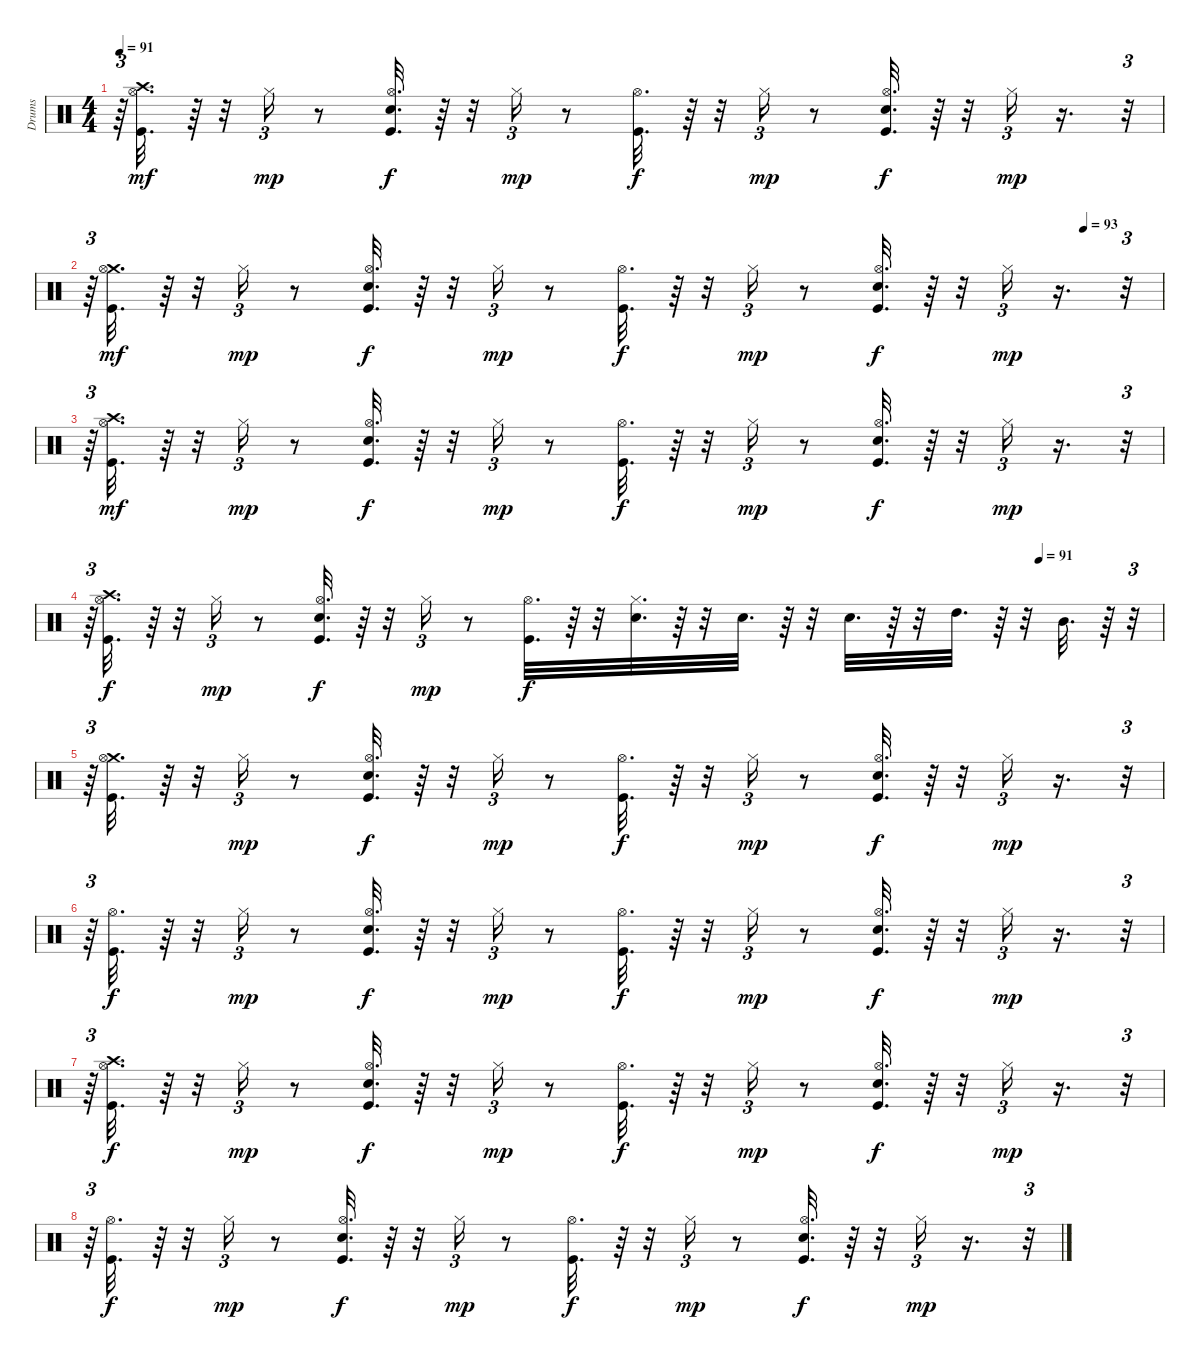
\track ("Drums" "Drums") {instrument percussion}
\staff {score}
\articulation defaults
\ts (4 4)
\tempo 91
\clef neutral
\ks c
r.64{tu (3 2) dy mp} ("Crash high (hit)" "Kick (hit)" "Hi-Hat (open)").32{d dy mf} r.64 r.32 "Hi-Hat (closed)".16{tu (3 2) dy mp} r.8 ("Kick (hit)" "Hi-Hat (open)" "Snare (hit) 2").32{d dy f} r.64 r.32 "Hi-Hat (closed)".16{tu (3 2) dy mp} r.8 ("Hi-Hat (open)" "Kick (hit)").32{d dy f} r.64 r.32 "Hi-Hat (closed)".16{tu (3 2) dy mp} r.8 ("Kick (hit)" "Snare (hit) 2" "Hi-Hat (open)").32{d dy f} r.64 r.32 "Hi-Hat (closed)".16{tu (3 2) dy mp} r.16{d} r.32{tu (3 2)} |
\tempo (93 0.9270833333333334)
r.64{tu (3 2)} ("Crash medium (hit)" "Kick (hit)" "Hi-Hat (open)").32{d dy mf} r.64 r.32 "Hi-Hat (closed)".16{tu (3 2) dy mp} r.8 ("Kick (hit)" "Hi-Hat (open)" "Snare (hit) 2").32{d dy f} r.64 r.32 "Hi-Hat (closed)".16{tu (3 2) dy mp} r.8 ("Hi-Hat (open)" "Kick (hit)").32{d dy f} r.64 r.32 "Hi-Hat (closed)".16{tu (3 2) dy mp} r.8 ("Kick (hit)" "Snare (hit) 2" "Hi-Hat (open)").32{d dy f} r.64 r.32 "Hi-Hat (closed)".16{tu (3 2) dy mp} r.16{d} r.32{tu (3 2)} |
r.64{tu (3 2)} ("Crash high (hit)" "Kick (hit)" "Hi-Hat (open)").32{d dy mf} r.64 r.32 "Hi-Hat (closed)".16{tu (3 2) dy mp} r.8 ("Kick (hit)" "Hi-Hat (open)" "Snare (hit) 2").32{d dy f} r.64 r.32 "Hi-Hat (closed)".16{tu (3 2) dy mp} r.8 ("Hi-Hat (open)" "Kick (hit)").32{d dy f} r.64 r.32 "Hi-Hat (closed)".16{tu (3 2) dy mp} r.8 ("Kick (hit)" "Snare (hit) 2" "Hi-Hat (open)").32{d dy f} r.64 r.32 "Hi-Hat (closed)".16{tu (3 2) dy mp} r.16{d} r.32{tu (3 2)} |
\tempo (91 0.8854166666666666)
r.64{tu (3 2)} ("Crash high (hit)" "Kick (hit)" "Hi-Hat (open)").32{d dy f} r.64 r.32 "Hi-Hat (closed)".16{tu (3 2) dy mp} r.8 ("Snare (hit) 2" "Kick (hit)" "Hi-Hat (open)").32{d dy f} r.64 r.32 "Hi-Hat (closed)".16{tu (3 2) dy mp} r.8 ("Hi-Hat (open)" "Kick (hit)").32{d dy f} r.64 r.32 ("Electric Snare (hit)" "Hi-Hat (closed)").32{d} r.64 r.32 "Electric Snare (hit)".32{d} r.64 r.32 "Electric Snare (hit)".32{d} r.64 r.32 "High Tom (hit)".32{d} r.64 r.32 "Mid Tom (hit)".32{d} r.64 r.32{tu (3 2)} |
r.64{tu (3 2)} ("Crash medium (hit)" "Kick (hit)" "Hi-Hat (open)").32{d} r.64 r.32 "Hi-Hat (closed)".16{tu (3 2) dy mp} r.8 ("Kick (hit)" "Hi-Hat (open)" "Snare (hit) 2").32{d dy f} r.64 r.32 "Hi-Hat (closed)".16{tu (3 2) dy mp} r.8 ("Hi-Hat (open)" "Kick (hit)").32{d dy f} r.64 r.32 "Hi-Hat (closed)".16{tu (3 2) dy mp} r.8 ("Kick (hit)" "Snare (hit) 2" "Hi-Hat (open)").32{d dy f} r.64 r.32 "Hi-Hat (closed)".16{tu (3 2) dy mp} r.16{d} r.32{tu (3 2)} |
r.64{tu (3 2)} ("Kick (hit)" "Hi-Hat (open)").32{d dy f} r.64 r.32 "Hi-Hat (closed)".16{tu (3 2) dy mp} r.8 ("Kick (hit)" "Hi-Hat (open)" "Snare (hit) 2").32{d dy f} r.64 r.32 "Hi-Hat (closed)".16{tu (3 2) dy mp} r.8 ("Hi-Hat (open)" "Kick (hit)").32{d dy f} r.64 r.32 "Hi-Hat (closed)".16{tu (3 2) dy mp} r.8 ("Kick (hit)" "Snare (hit) 2" "Hi-Hat (open)").32{d dy f} r.64 r.32 "Hi-Hat (closed)".16{tu (3 2) dy mp} r.16{d} r.32{tu (3 2)} |
r.64{tu (3 2)} ("Crash high (hit)" "Kick (hit)" "Hi-Hat (open)").32{d dy f} r.64 r.32 "Hi-Hat (closed)".16{tu (3 2) dy mp} r.8 ("Kick (hit)" "Hi-Hat (open)" "Snare (hit) 2").32{d dy f} r.64 r.32 "Hi-Hat (closed)".16{tu (3 2) dy mp} r.8 ("Hi-Hat (open)" "Kick (hit)").32{d dy f} r.64 r.32 "Hi-Hat (closed)".16{tu (3 2) dy mp} r.8 ("Kick (hit)" "Snare (hit) 2" "Hi-Hat (open)").32{d dy f} r.64 r.32 "Hi-Hat (closed)".16{tu (3 2) dy mp} r.16{d} r.32{tu (3 2)} |
r.64{tu (3 2)} ("Kick (hit)" "Hi-Hat (open)").32{d dy f} r.64 r.32 "Hi-Hat (closed)".16{tu (3 2) dy mp} r.8 ("Kick (hit)" "Hi-Hat (open)" "Snare (hit) 2").32{d dy f} r.64 r.32 "Hi-Hat (closed)".16{tu (3 2) dy mp} r.8 ("Hi-Hat (open)" "Kick (hit)").32{d dy f} r.64 r.32 "Hi-Hat (closed)".16{tu (3 2) dy mp} r.8 ("Kick (hit)" "Snare (hit) 2" "Hi-Hat (open)").32{d dy f} r.64 r.32 "Hi-Hat (closed)".16{tu (3 2) dy mp} r.16{d} r.32{tu (3 2)}
